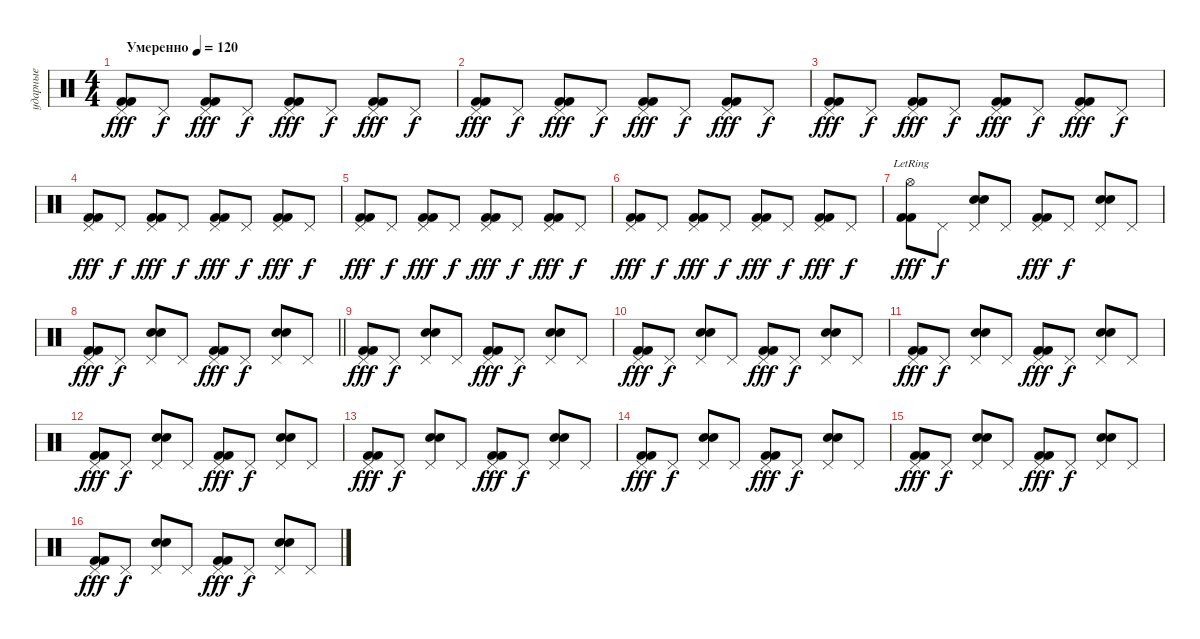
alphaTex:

\track ("ударные" "ударные") {instrument percussion}
\staff {score}
\articulation defaults
\ts (4 4)
\tempo (120 "Умеренно")
\clef neutral
\ks aminor
("Kick (hit) 2" "Kick (hit) 2" "Pedal Hi-Hat (hit)").8{dy fff} "Pedal Hi-Hat (hit)".8{dy f} ("Kick (hit) 2" "Kick (hit) 2" "Pedal Hi-Hat (hit)").8{dy fff} "Pedal Hi-Hat (hit)".8{dy f} ("Kick (hit) 2" "Kick (hit) 2" "Pedal Hi-Hat (hit)").8{dy fff} "Pedal Hi-Hat (hit)".8{dy f} ("Kick (hit) 2" "Kick (hit) 2" "Pedal Hi-Hat (hit)").8{dy fff} "Pedal Hi-Hat (hit)".8{dy f} |
("Kick (hit) 2" "Kick (hit) 2" "Pedal Hi-Hat (hit)").8{dy fff} "Pedal Hi-Hat (hit)".8{dy f} ("Kick (hit) 2" "Kick (hit) 2" "Pedal Hi-Hat (hit)").8{dy fff} "Pedal Hi-Hat (hit)".8{dy f} ("Kick (hit) 2" "Kick (hit) 2" "Pedal Hi-Hat (hit)").8{dy fff} "Pedal Hi-Hat (hit)".8{dy f} ("Kick (hit) 2" "Kick (hit) 2" "Pedal Hi-Hat (hit)").8{dy fff} "Pedal Hi-Hat (hit)".8{dy f} |
("Kick (hit) 2" "Kick (hit) 2" "Pedal Hi-Hat (hit)").8{dy fff} "Pedal Hi-Hat (hit)".8{dy f} ("Kick (hit) 2" "Kick (hit) 2" "Pedal Hi-Hat (hit)").8{dy fff} "Pedal Hi-Hat (hit)".8{dy f} ("Kick (hit) 2" "Kick (hit) 2" "Pedal Hi-Hat (hit)").8{dy fff} "Pedal Hi-Hat (hit)".8{dy f} ("Kick (hit) 2" "Kick (hit) 2" "Pedal Hi-Hat (hit)").8{dy fff} "Pedal Hi-Hat (hit)".8{dy f} |
("Kick (hit) 2" "Kick (hit) 2" "Pedal Hi-Hat (hit)").8{dy fff} "Pedal Hi-Hat (hit)".8{dy f} ("Kick (hit) 2" "Kick (hit) 2" "Pedal Hi-Hat (hit)").8{dy fff} "Pedal Hi-Hat (hit)".8{dy f} ("Kick (hit) 2" "Kick (hit) 2" "Pedal Hi-Hat (hit)").8{dy fff} "Pedal Hi-Hat (hit)".8{dy f} ("Kick (hit) 2" "Kick (hit) 2" "Pedal Hi-Hat (hit)").8{dy fff} "Pedal Hi-Hat (hit)".8{dy f} |
("Kick (hit) 2" "Kick (hit) 2" "Pedal Hi-Hat (hit)").8{dy fff} "Pedal Hi-Hat (hit)".8{dy f} ("Kick (hit) 2" "Kick (hit) 2" "Pedal Hi-Hat (hit)").8{dy fff} "Pedal Hi-Hat (hit)".8{dy f} ("Kick (hit) 2" "Kick (hit) 2" "Pedal Hi-Hat (hit)").8{dy fff} "Pedal Hi-Hat (hit)".8{dy f} ("Kick (hit) 2" "Kick (hit) 2" "Pedal Hi-Hat (hit)").8{dy fff} "Pedal Hi-Hat (hit)".8{dy f} |
("Kick (hit) 2" "Kick (hit) 2" "Pedal Hi-Hat (hit)").8{dy fff} "Pedal Hi-Hat (hit)".8{dy f} ("Kick (hit) 2" "Kick (hit) 2" "Pedal Hi-Hat (hit)").8{dy fff} "Pedal Hi-Hat (hit)".8{dy f} ("Kick (hit) 2" "Kick (hit) 2" "Pedal Hi-Hat (hit)").8{dy fff} "Pedal Hi-Hat (hit)".8{dy f} ("Kick (hit) 2" "Kick (hit) 2" "Pedal Hi-Hat (hit)").8{dy fff} "Pedal Hi-Hat (hit)".8{dy f} |
("Kick (hit) 2" "Kick (hit) 2" "Hi-Hat (open)"{lr}).8{dy fff} "Pedal Hi-Hat (hit)".8{dy f} ("Electric Snare (hit)" "Electric Snare (hit)" "Pedal Hi-Hat (hit)").8 "Pedal Hi-Hat (hit)".8 ("Kick (hit) 2" "Kick (hit) 2" "Pedal Hi-Hat (hit)").8{dy fff} "Pedal Hi-Hat (hit)".8{dy f} ("Electric Snare (hit)" "Electric Snare (hit)" "Pedal Hi-Hat (hit)").8 "Pedal Hi-Hat (hit)".8 |
\barLineRight lightlight
("Kick (hit) 2" "Kick (hit) 2" "Pedal Hi-Hat (hit)").8{dy fff} "Pedal Hi-Hat (hit)".8{dy f} ("Electric Snare (hit)" "Electric Snare (hit)" "Pedal Hi-Hat (hit)").8 "Pedal Hi-Hat (hit)".8 ("Kick (hit) 2" "Kick (hit) 2" "Pedal Hi-Hat (hit)").8{dy fff} "Pedal Hi-Hat (hit)".8{dy f} ("Electric Snare (hit)" "Electric Snare (hit)" "Pedal Hi-Hat (hit)").8 "Pedal Hi-Hat (hit)".8 |
\section ("" "")
("Kick (hit) 2" "Kick (hit) 2" "Pedal Hi-Hat (hit)").8{dy fff} "Pedal Hi-Hat (hit)".8{dy f} ("Electric Snare (hit)" "Electric Snare (hit)" "Pedal Hi-Hat (hit)").8 "Pedal Hi-Hat (hit)".8 ("Kick (hit) 2" "Kick (hit) 2" "Pedal Hi-Hat (hit)").8{dy fff} "Pedal Hi-Hat (hit)".8{dy f} ("Electric Snare (hit)" "Electric Snare (hit)" "Pedal Hi-Hat (hit)").8 "Pedal Hi-Hat (hit)".8 |
("Kick (hit) 2" "Kick (hit) 2" "Pedal Hi-Hat (hit)").8{dy fff} "Pedal Hi-Hat (hit)".8{dy f} ("Electric Snare (hit)" "Electric Snare (hit)" "Pedal Hi-Hat (hit)").8 "Pedal Hi-Hat (hit)".8 ("Kick (hit) 2" "Kick (hit) 2" "Pedal Hi-Hat (hit)").8{dy fff} "Pedal Hi-Hat (hit)".8{dy f} ("Electric Snare (hit)" "Electric Snare (hit)" "Pedal Hi-Hat (hit)").8 "Pedal Hi-Hat (hit)".8 |
("Kick (hit) 2" "Kick (hit) 2" "Pedal Hi-Hat (hit)").8{dy fff} "Pedal Hi-Hat (hit)".8{dy f} ("Electric Snare (hit)" "Electric Snare (hit)" "Pedal Hi-Hat (hit)").8 "Pedal Hi-Hat (hit)".8 ("Kick (hit) 2" "Kick (hit) 2" "Pedal Hi-Hat (hit)").8{dy fff} "Pedal Hi-Hat (hit)".8{dy f} ("Electric Snare (hit)" "Electric Snare (hit)" "Pedal Hi-Hat (hit)").8 "Pedal Hi-Hat (hit)".8 |
("Kick (hit) 2" "Kick (hit) 2" "Pedal Hi-Hat (hit)").8{dy fff} "Pedal Hi-Hat (hit)".8{dy f} ("Electric Snare (hit)" "Electric Snare (hit)" "Pedal Hi-Hat (hit)").8 "Pedal Hi-Hat (hit)".8 ("Kick (hit) 2" "Kick (hit) 2" "Pedal Hi-Hat (hit)").8{dy fff} "Pedal Hi-Hat (hit)".8{dy f} ("Electric Snare (hit)" "Electric Snare (hit)" "Pedal Hi-Hat (hit)").8 "Pedal Hi-Hat (hit)".8 |
("Kick (hit) 2" "Kick (hit) 2" "Pedal Hi-Hat (hit)").8{dy fff} "Pedal Hi-Hat (hit)".8{dy f} ("Electric Snare (hit)" "Electric Snare (hit)" "Pedal Hi-Hat (hit)").8 "Pedal Hi-Hat (hit)".8 ("Kick (hit) 2" "Kick (hit) 2" "Pedal Hi-Hat (hit)").8{dy fff} "Pedal Hi-Hat (hit)".8{dy f} ("Electric Snare (hit)" "Electric Snare (hit)" "Pedal Hi-Hat (hit)").8 "Pedal Hi-Hat (hit)".8 |
("Kick (hit) 2" "Kick (hit) 2" "Pedal Hi-Hat (hit)").8{dy fff} "Pedal Hi-Hat (hit)".8{dy f} ("Electric Snare (hit)" "Electric Snare (hit)" "Pedal Hi-Hat (hit)").8 "Pedal Hi-Hat (hit)".8 ("Kick (hit) 2" "Kick (hit) 2" "Pedal Hi-Hat (hit)").8{dy fff} "Pedal Hi-Hat (hit)".8{dy f} ("Electric Snare (hit)" "Electric Snare (hit)" "Pedal Hi-Hat (hit)").8 "Pedal Hi-Hat (hit)".8 |
("Kick (hit) 2" "Kick (hit) 2" "Pedal Hi-Hat (hit)").8{dy fff} "Pedal Hi-Hat (hit)".8{dy f} ("Electric Snare (hit)" "Electric Snare (hit)" "Pedal Hi-Hat (hit)").8 "Pedal Hi-Hat (hit)".8 ("Kick (hit) 2" "Kick (hit) 2" "Pedal Hi-Hat (hit)").8{dy fff} "Pedal Hi-Hat (hit)".8{dy f} ("Electric Snare (hit)" "Electric Snare (hit)" "Pedal Hi-Hat (hit)").8 "Pedal Hi-Hat (hit)".8 |
("Kick (hit) 2" "Kick (hit) 2" "Pedal Hi-Hat (hit)").8{dy fff} "Pedal Hi-Hat (hit)".8{dy f} ("Electric Snare (hit)" "Electric Snare (hit)" "Pedal Hi-Hat (hit)").8 "Pedal Hi-Hat (hit)".8 ("Kick (hit) 2" "Kick (hit) 2" "Pedal Hi-Hat (hit)").8{dy fff} "Pedal Hi-Hat (hit)".8{dy f} ("Electric Snare (hit)" "Electric Snare (hit)" "Pedal Hi-Hat (hit)").8 "Pedal Hi-Hat (hit)".8
